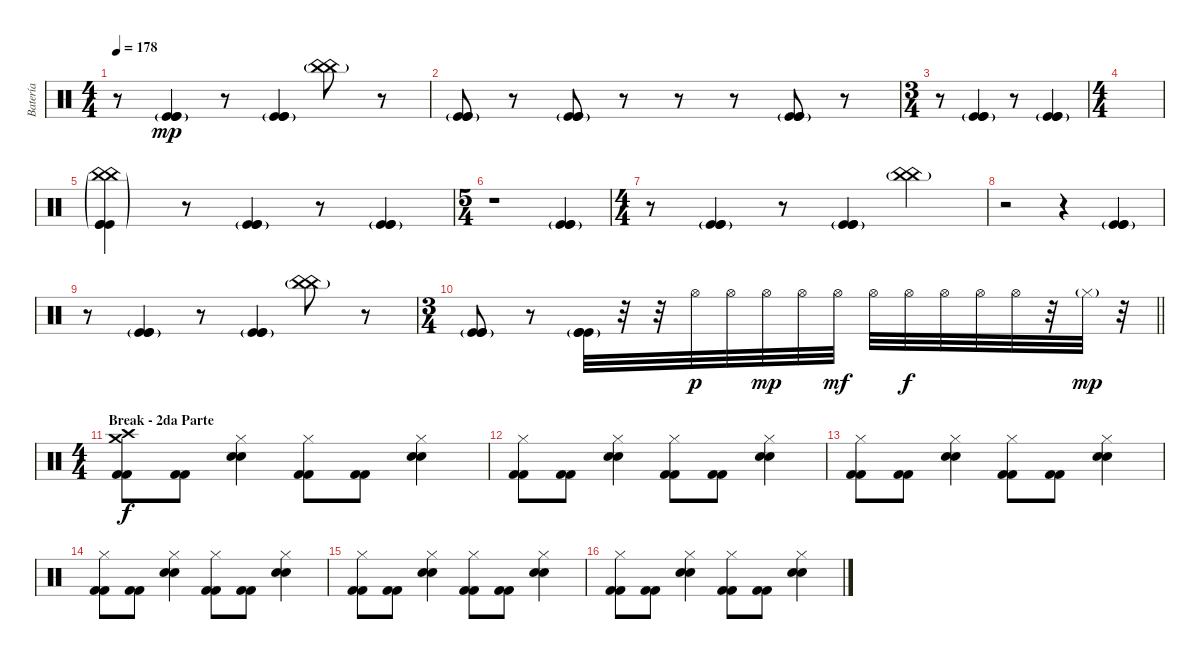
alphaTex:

\track ("Batería" "Batería") {instrument percussion}
\staff {score}
\articulation defaults
\ts (4 4)
\tempo 178
\clef neutral
\ks c
r.8{dy mp} ("Kick (hit)"{g} "Kick (hit)"{g} "Kick (hit)"{g}).4 r.8 ("Kick (hit)"{g} "Kick (hit)"{g} "Kick (hit)"{g}).4 ("China (hit)"{g} "China (hit)"{g}).8 r.8 |
("Kick (hit)"{g} "Kick (hit)"{g} "Kick (hit)"{g}).8 r.8 ("Kick (hit)"{g} "Kick (hit)"{g} "Kick (hit)"{g}).8 r.8 r.8 r.8 ("Kick (hit)"{g} "Kick (hit)"{g} "Kick (hit)"{g}).8 r.8 |
\ts (3 4)
r.8 ("Kick (hit)"{g} "Kick (hit)"{g} "Kick (hit)"{g}).4 r.8 ("Kick (hit)"{g} "Kick (hit)"{g} "Kick (hit)"{g}).4 |
\ts (4 4)
|
("China (hit)"{g} "China (hit)"{g} "Kick (hit)"{g} "Kick (hit)"{g} "Kick (hit)"{g}).4 r.8 ("Kick (hit)"{g} "Kick (hit)"{g} "Kick (hit)"{g}).4 r.8 ("Kick (hit)"{g} "Kick (hit)"{g} "Kick (hit)"{g}).4 |
\ts (5 4)
r.1 ("Kick (hit)"{g} "Kick (hit)"{g} "Kick (hit)"{g}).4 |
\ts (4 4)
r.8 ("Kick (hit)"{g} "Kick (hit)"{g} "Kick (hit)"{g}).4 r.8 ("Kick (hit)"{g} "Kick (hit)"{g} "Kick (hit)"{g}).4 ("China (hit)"{g} "China (hit)"{g}).4 |
r.2 r.4 ("Kick (hit)"{g} "Kick (hit)"{g} "Kick (hit)"{g}).4 |
r.8 ("Kick (hit)"{g} "Kick (hit)"{g} "Kick (hit)"{g}).4 r.8 ("Kick (hit)"{g} "Kick (hit)"{g} "Kick (hit)"{g}).4 ("China (hit)"{g} "China (hit)"{g}).8 r.8 |
\ts (3 4)
\barLineRight lightlight
("Kick (hit)"{g} "Kick (hit)"{g} "Kick (hit)"{g}).8 r.8 ("Kick (hit)"{g} "Kick (hit)"{g} "Kick (hit)"{g}).32 r.32 r.32 "Hi-Hat (open)".32{dy p} "Hi-Hat (open)".32 "Hi-Hat (open)".32{dy mp} "Hi-Hat (open)".32 "Hi-Hat (open)".32{dy mf} "Hi-Hat (open)".32 "Hi-Hat (open)".32{dy f} "Hi-Hat (open)".32 "Hi-Hat (open)".32 "Hi-Hat (open)".32 r.32 "Hi-Hat (closed)"{g}.32{dy mp} r.32 |
\ts (4 4)
\section ("" "Break - 2da Parte")
("Crash medium (hit)" "Crash high (hit)" "Kick (hit) 2" "Kick (hit) 2").8{dy f} ("Kick (hit) 2" "Kick (hit) 2").8 ("Hi-Hat (closed)" "Electric Snare (hit)" "Electric Snare (hit)").4 ("Hi-Hat (closed)" "Kick (hit) 2" "Kick (hit) 2").8 ("Kick (hit) 2" "Kick (hit) 2").8 ("Hi-Hat (closed)" "Electric Snare (hit)" "Electric Snare (hit)").4 |
("Hi-Hat (closed)" "Kick (hit) 2" "Kick (hit) 2").8 ("Kick (hit) 2" "Kick (hit) 2").8 ("Hi-Hat (closed)" "Electric Snare (hit)" "Electric Snare (hit)").4 ("Hi-Hat (closed)" "Kick (hit) 2" "Kick (hit) 2").8 ("Kick (hit) 2" "Kick (hit) 2").8 ("Hi-Hat (closed)" "Electric Snare (hit)" "Electric Snare (hit)").4 |
("Hi-Hat (closed)" "Kick (hit) 2" "Kick (hit) 2").8 ("Kick (hit) 2" "Kick (hit) 2").8 ("Hi-Hat (closed)" "Electric Snare (hit)" "Electric Snare (hit)").4 ("Hi-Hat (closed)" "Kick (hit) 2" "Kick (hit) 2").8 ("Kick (hit) 2" "Kick (hit) 2").8 ("Hi-Hat (closed)" "Electric Snare (hit)" "Electric Snare (hit)").4 |
("Hi-Hat (closed)" "Kick (hit) 2" "Kick (hit) 2").8 ("Kick (hit) 2" "Kick (hit) 2").8 ("Hi-Hat (closed)" "Electric Snare (hit)" "Electric Snare (hit)").4 ("Hi-Hat (closed)" "Kick (hit) 2" "Kick (hit) 2").8 ("Kick (hit) 2" "Kick (hit) 2").8 ("Hi-Hat (closed)" "Electric Snare (hit)" "Electric Snare (hit)").4 |
("Hi-Hat (closed)" "Kick (hit) 2" "Kick (hit) 2").8 ("Kick (hit) 2" "Kick (hit) 2").8 ("Hi-Hat (closed)" "Electric Snare (hit)" "Electric Snare (hit)").4 ("Hi-Hat (closed)" "Kick (hit) 2" "Kick (hit) 2").8 ("Kick (hit) 2" "Kick (hit) 2").8 ("Hi-Hat (closed)" "Electric Snare (hit)" "Electric Snare (hit)").4 |
("Hi-Hat (closed)" "Kick (hit) 2" "Kick (hit) 2").8 ("Kick (hit) 2" "Kick (hit) 2").8 ("Hi-Hat (closed)" "Electric Snare (hit)" "Electric Snare (hit)").4 ("Hi-Hat (closed)" "Kick (hit) 2" "Kick (hit) 2").8 ("Kick (hit) 2" "Kick (hit) 2").8 ("Hi-Hat (closed)" "Electric Snare (hit)" "Electric Snare (hit)").4
